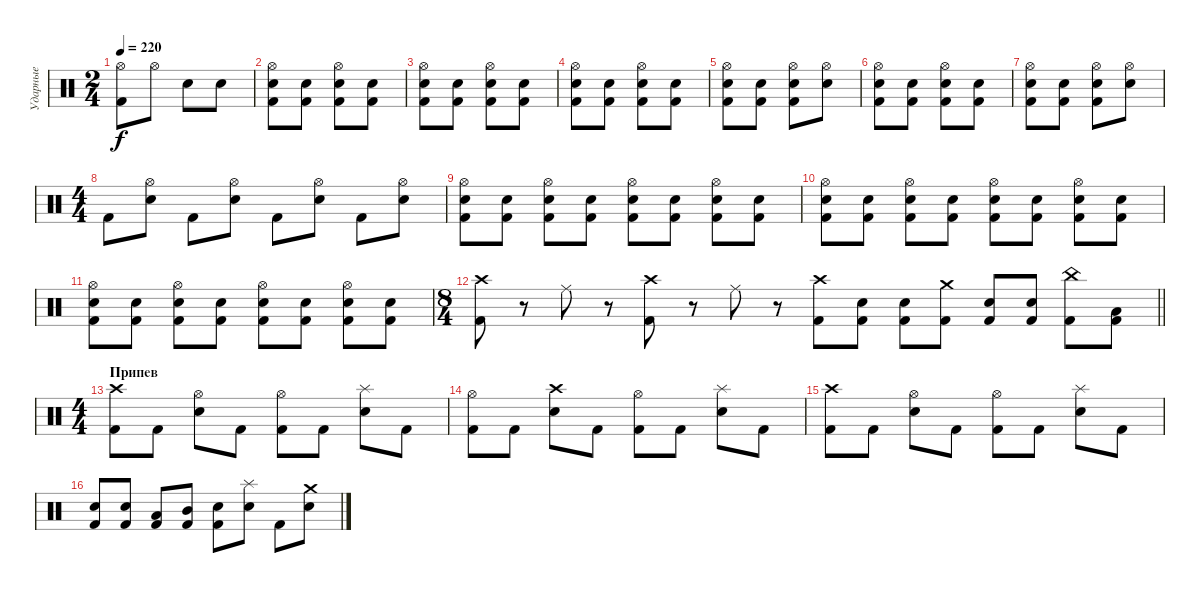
\track ("Ударные" "Ударные") {instrument percussion}
\staff {score}
\articulation defaults
\ts (2 4)
\tempo 220
\clef neutral
\ks c
("Hi-Hat (open)" "Kick (hit) 2").8{dy f} "Hi-Hat (open)".8 "Electric Snare (hit)".8 "Electric Snare (hit)".8 |
("Hi-Hat (open)" "Electric Snare (hit)" "Kick (hit) 2").8 ("Electric Snare (hit)" "Kick (hit) 2").8 ("Hi-Hat (open)" "Electric Snare (hit)" "Kick (hit) 2").8 ("Electric Snare (hit)" "Kick (hit) 2").8 |
("Hi-Hat (open)" "Electric Snare (hit)" "Kick (hit) 2").8 ("Electric Snare (hit)" "Kick (hit) 2").8 ("Hi-Hat (open)" "Electric Snare (hit)" "Kick (hit) 2").8 ("Electric Snare (hit)" "Kick (hit) 2").8 |
("Hi-Hat (open)" "Electric Snare (hit)" "Kick (hit) 2").8 ("Electric Snare (hit)" "Kick (hit) 2").8 ("Hi-Hat (open)" "Electric Snare (hit)" "Kick (hit) 2").8 ("Electric Snare (hit)" "Kick (hit) 2").8 |
("Hi-Hat (open)" "Electric Snare (hit)" "Kick (hit) 2").8 ("Electric Snare (hit)" "Kick (hit) 2").8 ("Hi-Hat (open)" "Electric Snare (hit)" "Kick (hit) 2").8 ("Electric Snare (hit)" "Hi-Hat (open)").8 |
("Hi-Hat (open)" "Electric Snare (hit)" "Kick (hit) 2").8 ("Electric Snare (hit)" "Kick (hit) 2").8 ("Hi-Hat (open)" "Electric Snare (hit)" "Kick (hit) 2").8 ("Electric Snare (hit)" "Kick (hit) 2").8 |
("Hi-Hat (open)" "Electric Snare (hit)" "Kick (hit) 2").8 ("Electric Snare (hit)" "Kick (hit) 2").8 ("Hi-Hat (open)" "Electric Snare (hit)" "Kick (hit) 2").8 ("Electric Snare (hit)" "Hi-Hat (open)").8 |
\ts (4 4)
"Kick (hit) 2".8 ("Electric Snare (hit)" "Hi-Hat (open)").8 "Kick (hit) 2".8 ("Electric Snare (hit)" "Hi-Hat (open)").8 "Kick (hit) 2".8 ("Electric Snare (hit)" "Hi-Hat (open)").8 "Kick (hit) 2".8 ("Electric Snare (hit)" "Hi-Hat (open)").8 |
("Hi-Hat (open)" "Electric Snare (hit)" "Kick (hit) 2").8 ("Electric Snare (hit)" "Kick (hit) 2").8 ("Hi-Hat (open)" "Electric Snare (hit)" "Kick (hit) 2").8 ("Electric Snare (hit)" "Kick (hit) 2").8 ("Hi-Hat (open)" "Electric Snare (hit)" "Kick (hit) 2").8 ("Electric Snare (hit)" "Kick (hit) 2").8 ("Hi-Hat (open)" "Electric Snare (hit)" "Kick (hit) 2").8 ("Electric Snare (hit)" "Kick (hit) 2").8 |
("Hi-Hat (open)" "Electric Snare (hit)" "Kick (hit) 2").8 ("Electric Snare (hit)" "Kick (hit) 2").8 ("Hi-Hat (open)" "Electric Snare (hit)" "Kick (hit) 2").8 ("Electric Snare (hit)" "Kick (hit) 2").8 ("Hi-Hat (open)" "Electric Snare (hit)" "Kick (hit) 2").8 ("Electric Snare (hit)" "Kick (hit) 2").8 ("Hi-Hat (open)" "Electric Snare (hit)" "Kick (hit) 2").8 ("Electric Snare (hit)" "Kick (hit) 2").8 |
("Hi-Hat (open)" "Electric Snare (hit)" "Kick (hit) 2").8 ("Electric Snare (hit)" "Kick (hit) 2").8 ("Hi-Hat (open)" "Electric Snare (hit)" "Kick (hit) 2").8 ("Electric Snare (hit)" "Kick (hit) 2").8 ("Hi-Hat (open)" "Electric Snare (hit)" "Kick (hit) 2").8 ("Electric Snare (hit)" "Kick (hit) 2").8 ("Hi-Hat (open)" "Electric Snare (hit)" "Kick (hit) 2").8 ("Electric Snare (hit)" "Kick (hit) 2").8 |
\ts (8 4)
\barLineRight lightlight
("Kick (hit) 2" "Crash high (hit)").8 r.8 "Ride (middle)".8 r.8 ("Kick (hit) 2" "Crash high (hit)").8 r.8 "Ride (middle)".8 r.8 ("Kick (hit) 2" "Crash high (hit)").8 ("Kick (hit) 2" "Electric Snare (hit)").8 ("Kick (hit) 2" "Electric Snare (hit)").8 ("Kick (hit) 2" "Crash medium (hit)").8 ("Kick (hit) 2" "Electric Snare (hit)").8 ("Kick (hit) 2" "Electric Snare (hit)").8 ("Kick (hit) 2" "China (hit)").8 ("Kick (hit) 2" "Low Tom (hit)").8 |
\ts (4 4)
\section ("" "Припев")
("Kick (hit) 2" "Crash high (hit)").8 "Kick (hit) 2".8 ("Electric Snare (hit)" "Hi-Hat (open)").8 "Kick (hit) 2".8 ("Kick (hit) 2" "Hi-Hat (open)").8 "Kick (hit) 2".8 ("Electric Snare (hit)" "Splash (hit)").8 "Kick (hit) 2".8 |
("Kick (hit) 2" "Hi-Hat (open)").8 "Kick (hit) 2".8 ("Electric Snare (hit)" "Crash high (hit)").8 "Kick (hit) 2".8 ("Kick (hit) 2" "Hi-Hat (open)").8 "Kick (hit) 2".8 ("Electric Snare (hit)" "Splash (hit)").8 "Kick (hit) 2".8 |
("Kick (hit) 2" "Crash high (hit)").8 "Kick (hit) 2".8 ("Electric Snare (hit)" "Hi-Hat (open)").8 "Kick (hit) 2".8 ("Kick (hit) 2" "Hi-Hat (open)").8 "Kick (hit) 2".8 ("Electric Snare (hit)" "Splash (hit)").8 "Kick (hit) 2".8 |
("Kick (hit) 2" "Electric Snare (hit)").8 ("Kick (hit) 2" "Electric Snare (hit)").8 ("Kick (hit) 2" "Low Tom (hit)").8 ("Kick (hit) 2" "Mid Tom (hit)").8 ("Kick (hit) 2" "Electric Snare (hit)").8 ("Splash (hit)" "Electric Snare (hit)").8 "Kick (hit) 2".8 ("Electric Snare (hit)" "Crash medium (hit)").8
